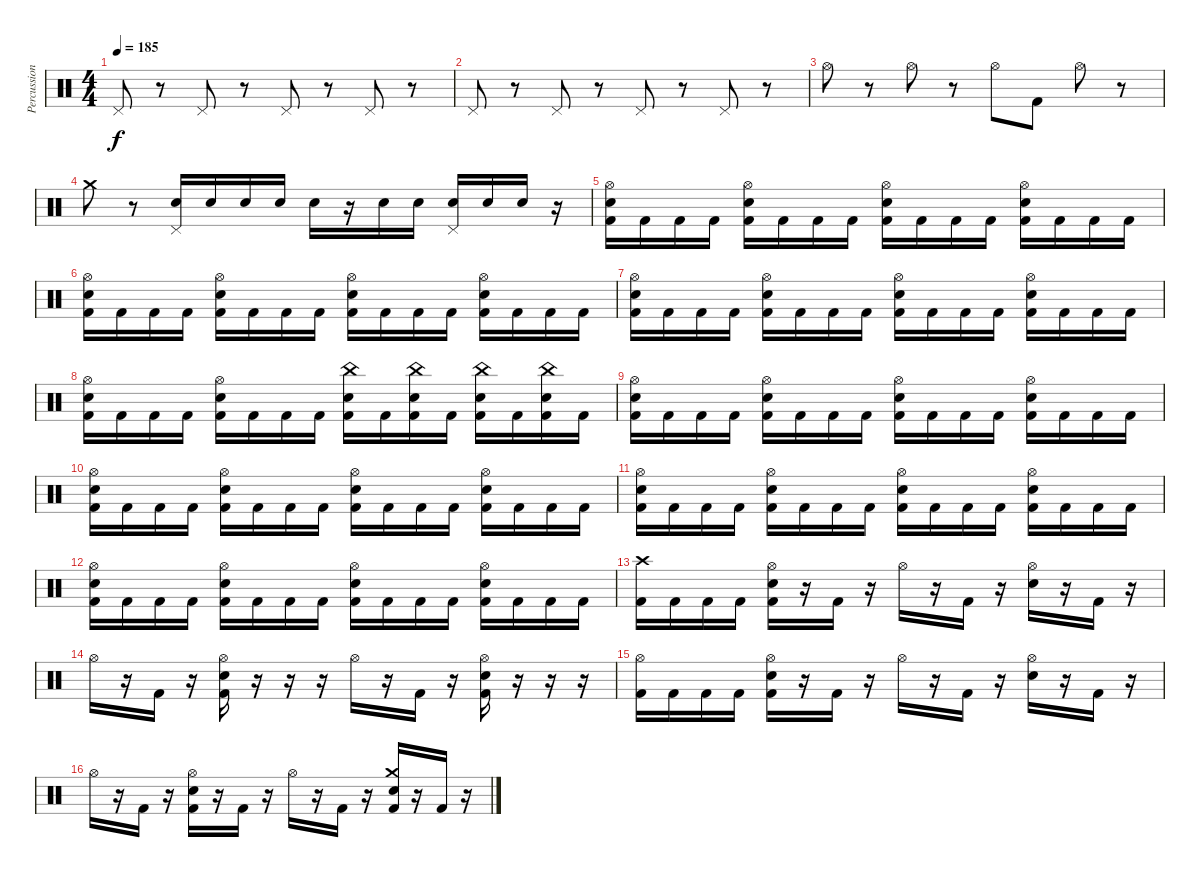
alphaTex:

\track ("Percussion" "Percussion") {instrument percussion}
\staff {score}
\articulation defaults
\ts (4 4)
\tempo 185
\clef neutral
\ks c "Pedal Hi-Hat (hit)".8{dy f}
r.8 "Pedal Hi-Hat (hit)".8 r.8 "Pedal Hi-Hat (hit)".8 r.8 "Pedal Hi-Hat (hit)".8 r.8 |
"Pedal Hi-Hat (hit)".8 r.8 "Pedal Hi-Hat (hit)".8 r.8 "Pedal Hi-Hat (hit)".8 r.8 "Pedal Hi-Hat (hit)".8 r.8 |
"Hi-Hat (open)".8 r.8 "Hi-Hat (open)".8 r.8 "Hi-Hat (open)".8 "Kick (hit) 2".8 "Hi-Hat (open)".8 r.8 |
"Crash medium (hit)".8 r.8 ("Pedal Hi-Hat (hit)" "Electric Snare (hit)").16 "Electric Snare (hit)".16 "Electric Snare (hit)".16 "Electric Snare (hit)".16 "Electric Snare (hit)".16 r.16 "Electric Snare (hit)".16 "Electric Snare (hit)".16 ("Pedal Hi-Hat (hit)" "Electric Snare (hit)").16 "Electric Snare (hit)".16 "Electric Snare (hit)".16 r.16 |
("Hi-Hat (open)" "Electric Snare (hit)" "Kick (hit) 2").16 "Kick (hit) 2".16 "Kick (hit) 2".16 "Kick (hit) 2".16 ("Hi-Hat (open)" "Electric Snare (hit)" "Kick (hit) 2").16 "Kick (hit) 2".16 "Kick (hit) 2".16 "Kick (hit) 2".16 ("Hi-Hat (open)" "Electric Snare (hit)" "Kick (hit) 2").16 "Kick (hit) 2".16 "Kick (hit) 2".16 "Kick (hit) 2".16 ("Hi-Hat (open)" "Electric Snare (hit)" "Kick (hit) 2").16 "Kick (hit) 2".16 "Kick (hit) 2".16 "Kick (hit) 2".16 |
("Hi-Hat (open)" "Electric Snare (hit)" "Kick (hit) 2").16 "Kick (hit) 2".16 "Kick (hit) 2".16 "Kick (hit) 2".16 ("Hi-Hat (open)" "Electric Snare (hit)" "Kick (hit) 2").16 "Kick (hit) 2".16 "Kick (hit) 2".16 "Kick (hit) 2".16 ("Hi-Hat (open)" "Electric Snare (hit)" "Kick (hit) 2").16 "Kick (hit) 2".16 "Kick (hit) 2".16 "Kick (hit) 2".16 ("Hi-Hat (open)" "Electric Snare (hit)" "Kick (hit) 2").16 "Kick (hit) 2".16 "Kick (hit) 2".16 "Kick (hit) 2".16 |
("Hi-Hat (open)" "Electric Snare (hit)" "Kick (hit) 2").16 "Kick (hit) 2".16 "Kick (hit) 2".16 "Kick (hit) 2".16 ("Hi-Hat (open)" "Electric Snare (hit)" "Kick (hit) 2").16 "Kick (hit) 2".16 "Kick (hit) 2".16 "Kick (hit) 2".16 ("Hi-Hat (open)" "Electric Snare (hit)" "Kick (hit) 2").16 "Kick (hit) 2".16 "Kick (hit) 2".16 "Kick (hit) 2".16 ("Hi-Hat (open)" "Electric Snare (hit)" "Kick (hit) 2").16 "Kick (hit) 2".16 "Kick (hit) 2".16 "Kick (hit) 2".16 |
("Hi-Hat (open)" "Electric Snare (hit)" "Kick (hit) 2").16 "Kick (hit) 2".16 "Kick (hit) 2".16 "Kick (hit) 2".16 ("Hi-Hat (open)" "Electric Snare (hit)" "Kick (hit) 2").16 "Kick (hit) 2".16 "Kick (hit) 2".16 "Kick (hit) 2".16 ("China (hit)" "Electric Snare (hit)" "Kick (hit) 2").16 "Kick (hit) 2".16 ("China (hit)" "Electric Snare (hit)" "Kick (hit) 2").16 "Kick (hit) 2".16 ("China (hit)" "Electric Snare (hit)" "Kick (hit) 2").16 "Kick (hit) 2".16 ("China (hit)" "Electric Snare (hit)" "Kick (hit) 2").16 "Kick (hit) 2".16 |
("Hi-Hat (open)" "Electric Snare (hit)" "Kick (hit) 2").16 "Kick (hit) 2".16 "Kick (hit) 2".16 "Kick (hit) 2".16 ("Hi-Hat (open)" "Electric Snare (hit)" "Kick (hit) 2").16 "Kick (hit) 2".16 "Kick (hit) 2".16 "Kick (hit) 2".16 ("Hi-Hat (open)" "Electric Snare (hit)" "Kick (hit) 2").16 "Kick (hit) 2".16 "Kick (hit) 2".16 "Kick (hit) 2".16 ("Hi-Hat (open)" "Electric Snare (hit)" "Kick (hit) 2").16 "Kick (hit) 2".16 "Kick (hit) 2".16 "Kick (hit) 2".16 |
("Hi-Hat (open)" "Electric Snare (hit)" "Kick (hit) 2").16 "Kick (hit) 2".16 "Kick (hit) 2".16 "Kick (hit) 2".16 ("Hi-Hat (open)" "Electric Snare (hit)" "Kick (hit) 2").16 "Kick (hit) 2".16 "Kick (hit) 2".16 "Kick (hit) 2".16 ("Hi-Hat (open)" "Electric Snare (hit)" "Kick (hit) 2").16 "Kick (hit) 2".16 "Kick (hit) 2".16 "Kick (hit) 2".16 ("Hi-Hat (open)" "Electric Snare (hit)" "Kick (hit) 2").16 "Kick (hit) 2".16 "Kick (hit) 2".16 "Kick (hit) 2".16 |
("Hi-Hat (open)" "Electric Snare (hit)" "Kick (hit) 2").16 "Kick (hit) 2".16 "Kick (hit) 2".16 "Kick (hit) 2".16 ("Hi-Hat (open)" "Electric Snare (hit)" "Kick (hit) 2").16 "Kick (hit) 2".16 "Kick (hit) 2".16 "Kick (hit) 2".16 ("Hi-Hat (open)" "Electric Snare (hit)" "Kick (hit) 2").16 "Kick (hit) 2".16 "Kick (hit) 2".16 "Kick (hit) 2".16 ("Hi-Hat (open)" "Electric Snare (hit)" "Kick (hit) 2").16 "Kick (hit) 2".16 "Kick (hit) 2".16 "Kick (hit) 2".16 |
("Hi-Hat (open)" "Electric Snare (hit)" "Kick (hit) 2").16 "Kick (hit) 2".16 "Kick (hit) 2".16 "Kick (hit) 2".16 ("Hi-Hat (open)" "Electric Snare (hit)" "Kick (hit) 2").16 "Kick (hit) 2".16 "Kick (hit) 2".16 "Kick (hit) 2".16 ("Hi-Hat (open)" "Electric Snare (hit)" "Kick (hit) 2").16 "Kick (hit) 2".16 "Kick (hit) 2".16 "Kick (hit) 2".16 ("Hi-Hat (open)" "Electric Snare (hit)" "Kick (hit) 2").16 "Kick (hit) 2".16 "Kick (hit) 2".16 "Kick (hit) 2".16 |
("Crash high (hit)" "Kick (hit) 2").16 "Kick (hit) 2".16 "Kick (hit) 2".16 "Kick (hit) 2".16 ("Hi-Hat (open)" "Electric Snare (hit)" "Kick (hit) 2").16 r.16 "Kick (hit) 2".16 r.16 "Hi-Hat (open)".16 r.16 "Kick (hit) 2".16 r.16 ("Hi-Hat (open)" "Electric Snare (hit)").16 r.16 "Kick (hit) 2".16 r.16 |
"Hi-Hat (open)".16 r.16 "Kick (hit) 2".16 r.16 ("Hi-Hat (open)" "Electric Snare (hit)" "Kick (hit) 2").16 r.16 r.16 r.16 "Hi-Hat (open)".16 r.16 "Kick (hit) 2".16 r.16 ("Hi-Hat (open)" "Electric Snare (hit)" "Kick (hit) 2").16 r.16 r.16 r.16 |
("Hi-Hat (open)" "Kick (hit) 2").16 "Kick (hit) 2".16 "Kick (hit) 2".16 "Kick (hit) 2".16 ("Hi-Hat (open)" "Electric Snare (hit)" "Kick (hit) 2").16 r.16 "Kick (hit) 2".16 r.16 "Hi-Hat (open)".16 r.16 "Kick (hit) 2".16 r.16 ("Hi-Hat (open)" "Electric Snare (hit)").16 r.16 "Kick (hit) 2".16 r.16 |
"Hi-Hat (open)".16 r.16 "Kick (hit) 2".16 r.16 ("Hi-Hat (open)" "Electric Snare (hit)" "Kick (hit) 2").16 r.16 "Kick (hit) 2".16 r.16 "Hi-Hat (open)".16 r.16 "Kick (hit) 2".16 r.16 ("Crash medium (hit)" "Electric Snare (hit)" "Kick (hit) 2").16 r.16 "Kick (hit) 2".16 r.16
